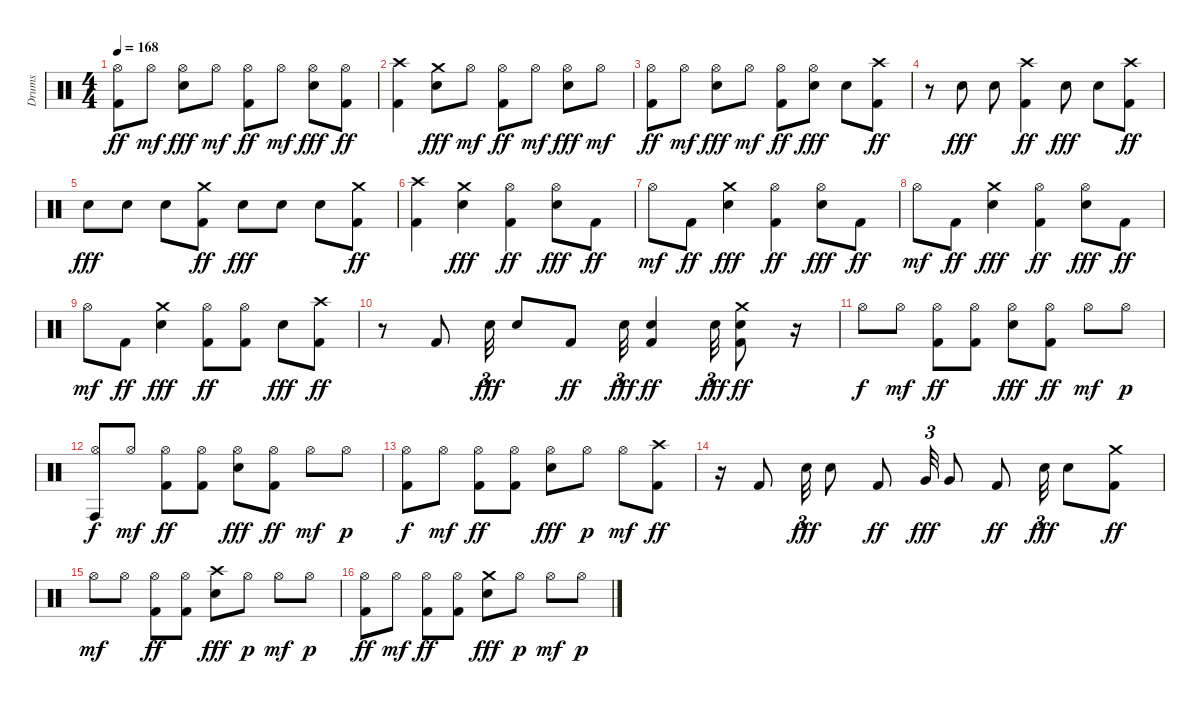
\track ("Drums" "Drums") {instrument percussion}
\staff {score}
\articulation defaults
\ts (4 4)
\tempo 168
\clef neutral
\ks c
("Hi-Hat (open)" "Kick (hit) 2").8{dy ff} "Hi-Hat (open)".8{dy mf} ("Hi-Hat (open)" "Snare (hit) 2").8{dy fff} "Hi-Hat (open)".8{dy mf} ("Hi-Hat (open)" "Kick (hit) 2").8{dy ff} "Hi-Hat (open)".8{dy mf} ("Hi-Hat (open)" "Snare (hit) 2").8{dy fff} ("Hi-Hat (open)" "Kick (hit) 2").8{dy ff} |
("Kick (hit) 2" "Crash high (hit)").4 ("Snare (hit) 2" "Crash medium (hit)").8{dy fff} "Hi-Hat (open)".8{dy mf} ("Hi-Hat (open)" "Kick (hit) 2").8{dy ff} "Hi-Hat (open)".8{dy mf} ("Hi-Hat (open)" "Snare (hit) 2").8{dy fff} "Hi-Hat (open)".8{dy mf} |
("Hi-Hat (open)" "Kick (hit) 2").8{dy ff} "Hi-Hat (open)".8{dy mf} ("Hi-Hat (open)" "Snare (hit) 2").8{dy fff} "Hi-Hat (open)".8{dy mf} ("Hi-Hat (open)" "Kick (hit) 2").8{dy ff} ("Hi-Hat (open)" "Snare (hit) 2").8{dy fff} "Electric Snare (hit)".8 ("Kick (hit) 2" "Crash high (hit)").8{dy ff} |
r.8 "Snare (hit) 2".8{dy fff} "Snare (hit) 2".8 ("Kick (hit) 2" "Crash high (hit)").4{dy ff} "Snare (hit) 2".8{dy fff} "Snare (hit) 2".8 ("Kick (hit) 2" "Crash high (hit)").8{dy ff} |
"Snare (hit) 2".8{dy fff} "Snare (hit) 2".8 "Snare (hit) 2".8 ("Kick (hit) 2" "Crash medium (hit)").8{dy ff} "Snare (hit) 2".8{dy fff} "Snare (hit) 2".8 "Snare (hit) 2".8 ("Kick (hit) 2" "Crash medium (hit)").8{dy ff} |
("Kick (hit) 2" "Crash high (hit)").4 ("Snare (hit) 2" "Crash medium (hit)").4{dy fff} ("Hi-Hat (open)" "Kick (hit) 2").4{dy ff} ("Hi-Hat (open)" "Snare (hit) 2").8{dy fff} "Kick (hit) 2".8{dy ff} |
"Hi-Hat (open)".8{dy mf} "Kick (hit) 2".8{dy ff} ("Snare (hit) 2" "Crash medium (hit)").4{dy fff} ("Hi-Hat (open)" "Kick (hit) 2").4{dy ff} ("Hi-Hat (open)" "Snare (hit) 2").8{dy fff} "Kick (hit) 2".8{dy ff} |
"Hi-Hat (open)".8{dy mf} "Kick (hit) 2".8{dy ff} ("Snare (hit) 2" "Crash medium (hit)").4{dy fff} ("Hi-Hat (open)" "Kick (hit) 2").4{dy ff} ("Hi-Hat (open)" "Snare (hit) 2").8{dy fff} "Kick (hit) 2".8{dy ff} |
"Hi-Hat (open)".8{dy mf} "Kick (hit) 2".8{dy ff} ("Snare (hit) 2" "Crash medium (hit)").4{dy fff} ("Hi-Hat (open)" "Kick (hit) 2").8{dy ff} ("Hi-Hat (open)" "Kick (hit) 2").8 "Snare (hit) 2".8{dy fff} ("Kick (hit) 2" "Crash high (hit)").8{dy ff} |
r.8 "Kick (hit) 2".8 "Snare (hit) 2".32{tu (3 2) dy fff} "Snare (hit) 2".8 "Kick (hit) 2".8{dy ff} "Snare (hit) 2".32{tu (3 2) dy fff} ("Snare (hit) 2" "Kick (hit) 2").4{dy ff} "Snare (hit) 2".32{tu (3 2) dy fff} ("Snare (hit) 2" "Kick (hit) 2" "Crash medium (hit)").8{dy ff} r.16 |
"Hi-Hat (open)".8{dy f} "Hi-Hat (open)".8{dy mf} ("Hi-Hat (open)" "Kick (hit) 2").8{dy ff} ("Hi-Hat (open)" "Kick (hit) 2").8 ("Hi-Hat (open)" "Snare (hit) 2").8{dy fff} ("Hi-Hat (open)" "Kick (hit) 2").8{dy ff} "Hi-Hat (open)".8{dy mf} "Hi-Hat (open)".8{dy p} |
("Hi-Hat (open)" "Conga high (hit)").8{dy f} "Hi-Hat (open)".8{dy mf} ("Hi-Hat (open)" "Kick (hit) 2").8{dy ff} ("Hi-Hat (open)" "Kick (hit) 2").8 ("Hi-Hat (open)" "Snare (hit) 2").8{dy fff} ("Hi-Hat (open)" "Kick (hit) 2").8{dy ff} "Hi-Hat (open)".8{dy mf} "Hi-Hat (open)".8{dy p} |
("Hi-Hat (open)" "Kick (hit) 2").8{dy f} "Hi-Hat (open)".8{dy mf} ("Hi-Hat (open)" "Kick (hit) 2").8{dy ff} ("Hi-Hat (open)" "Kick (hit) 2").8 ("Hi-Hat (open)" "Snare (hit) 2").8{dy fff} "Hi-Hat (open)".8{dy p} "Hi-Hat (open)".8{dy mf} ("Kick (hit) 2" "Crash high (hit)").8{dy ff} |
r.16 "Kick (hit) 2".8 "Snare (hit) 2".32{tu (3 2) dy fff} "Snare (hit) 2".8 "Kick (hit) 2".8{dy ff} "Very Low Tom (hit)".32{tu (3 2) dy fff} "Very Low Tom (hit)".8 "Kick (hit) 2".8{dy ff} "Snare (hit) 2".32{tu (3 2) dy fff} "Snare (hit) 2".8 ("Kick (hit) 2" "Crash medium (hit)").8{dy ff} |
"Hi-Hat (open)".8{dy mf} "Hi-Hat (open)".8 ("Hi-Hat (open)" "Kick (hit) 2").8{dy ff} ("Hi-Hat (open)" "Kick (hit) 2").8 ("Snare (hit) 2" "Crash high (hit)").8{dy fff} "Hi-Hat (open)".8{dy p} "Hi-Hat (open)".8{dy mf} "Hi-Hat (open)".8{dy p} |
("Hi-Hat (open)" "Kick (hit) 2").8{dy ff} "Hi-Hat (open)".8{dy mf} ("Hi-Hat (open)" "Kick (hit) 2").8{dy ff} ("Hi-Hat (open)" "Kick (hit) 2").8 ("Snare (hit) 2" "Crash medium (hit)").8{dy fff} "Hi-Hat (open)".8{dy p} "Hi-Hat (open)".8{dy mf} "Hi-Hat (open)".8{dy p}
